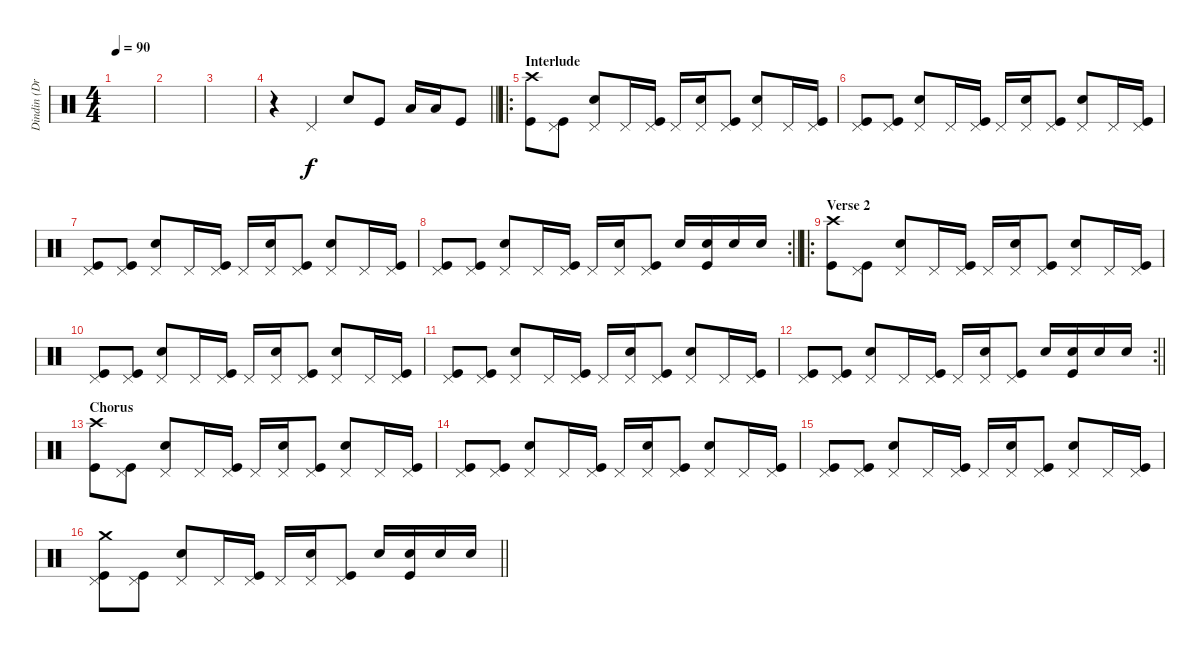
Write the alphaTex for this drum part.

\track ("Dindin (Drums)" "Dindin (Dr") {instrument percussion}
\staff {score}
\articulation defaults
\ts (4 4)
\tempo 90
\clef neutral
\ks c
|
|
|
\barLineRight lightlight
r.4 "Pedal Hi-Hat (hit)".4 "Snare (hit) 2".8 "Kick (hit)".8 "Low Tom (hit)".16 "Low Tom (hit)".16 "Kick (hit)".8 |
\ro
\section ("" "Interlude")
("Crash high (hit)" "Kick (hit)").8 ("Pedal Hi-Hat (hit)" "Kick (hit)").8 ("Pedal Hi-Hat (hit)" "Snare (hit) 2").8 "Pedal Hi-Hat (hit)".16 ("Pedal Hi-Hat (hit)" "Kick (hit)").16 "Pedal Hi-Hat (hit)".16 ("Pedal Hi-Hat (hit)" "Snare (hit) 2").16 ("Pedal Hi-Hat (hit)" "Kick (hit)").8 ("Pedal Hi-Hat (hit)" "Snare (hit) 2").8 "Pedal Hi-Hat (hit)".16 ("Pedal Hi-Hat (hit)" "Kick (hit)").16 |
("Pedal Hi-Hat (hit)" "Kick (hit)").8 ("Pedal Hi-Hat (hit)" "Kick (hit)").8 ("Pedal Hi-Hat (hit)" "Snare (hit) 2").8 "Pedal Hi-Hat (hit)".16 ("Pedal Hi-Hat (hit)" "Kick (hit)").16 "Pedal Hi-Hat (hit)".16 ("Pedal Hi-Hat (hit)" "Snare (hit) 2").16 ("Pedal Hi-Hat (hit)" "Kick (hit)").8 ("Pedal Hi-Hat (hit)" "Snare (hit) 2").8 "Pedal Hi-Hat (hit)".16 ("Pedal Hi-Hat (hit)" "Kick (hit)").16 |
("Pedal Hi-Hat (hit)" "Kick (hit)").8 ("Pedal Hi-Hat (hit)" "Kick (hit)").8 ("Pedal Hi-Hat (hit)" "Snare (hit) 2").8 "Pedal Hi-Hat (hit)".16 ("Pedal Hi-Hat (hit)" "Kick (hit)").16 "Pedal Hi-Hat (hit)".16 ("Pedal Hi-Hat (hit)" "Snare (hit) 2").16 ("Pedal Hi-Hat (hit)" "Kick (hit)").8 ("Pedal Hi-Hat (hit)" "Snare (hit) 2").8 "Pedal Hi-Hat (hit)".16 ("Pedal Hi-Hat (hit)" "Kick (hit)").16 |
\rc 2
\barLineRight lightlight
("Pedal Hi-Hat (hit)" "Kick (hit)").8 ("Pedal Hi-Hat (hit)" "Kick (hit)").8 ("Pedal Hi-Hat (hit)" "Snare (hit) 2").8 "Pedal Hi-Hat (hit)".16 ("Pedal Hi-Hat (hit)" "Kick (hit)").16 "Pedal Hi-Hat (hit)".16 ("Pedal Hi-Hat (hit)" "Snare (hit) 2").16 ("Pedal Hi-Hat (hit)" "Kick (hit)").8 "Snare (hit) 2".16 ("Snare (hit) 2" "Kick (hit)").16 "Snare (hit) 2".16 "Snare (hit) 2".16 |
\ro
\section ("" "Verse 2")
("Crash high (hit)" "Kick (hit)").8 ("Pedal Hi-Hat (hit)" "Kick (hit)").8 ("Pedal Hi-Hat (hit)" "Snare (hit) 2").8 "Pedal Hi-Hat (hit)".16 ("Pedal Hi-Hat (hit)" "Kick (hit)").16 "Pedal Hi-Hat (hit)".16 ("Pedal Hi-Hat (hit)" "Snare (hit) 2").16 ("Pedal Hi-Hat (hit)" "Kick (hit)").8 ("Pedal Hi-Hat (hit)" "Snare (hit) 2").8 "Pedal Hi-Hat (hit)".16 ("Pedal Hi-Hat (hit)" "Kick (hit)").16 |
("Pedal Hi-Hat (hit)" "Kick (hit)").8 ("Pedal Hi-Hat (hit)" "Kick (hit)").8 ("Pedal Hi-Hat (hit)" "Snare (hit) 2").8 "Pedal Hi-Hat (hit)".16 ("Pedal Hi-Hat (hit)" "Kick (hit)").16 "Pedal Hi-Hat (hit)".16 ("Pedal Hi-Hat (hit)" "Snare (hit) 2").16 ("Pedal Hi-Hat (hit)" "Kick (hit)").8 ("Pedal Hi-Hat (hit)" "Snare (hit) 2").8 "Pedal Hi-Hat (hit)".16 ("Pedal Hi-Hat (hit)" "Kick (hit)").16 |
("Pedal Hi-Hat (hit)" "Kick (hit)").8 ("Pedal Hi-Hat (hit)" "Kick (hit)").8 ("Pedal Hi-Hat (hit)" "Snare (hit) 2").8 "Pedal Hi-Hat (hit)".16 ("Pedal Hi-Hat (hit)" "Kick (hit)").16 "Pedal Hi-Hat (hit)".16 ("Pedal Hi-Hat (hit)" "Snare (hit) 2").16 ("Pedal Hi-Hat (hit)" "Kick (hit)").8 ("Pedal Hi-Hat (hit)" "Snare (hit) 2").8 "Pedal Hi-Hat (hit)".16 ("Pedal Hi-Hat (hit)" "Kick (hit)").16 |
\rc 2
\barLineRight lightlight
("Pedal Hi-Hat (hit)" "Kick (hit)").8 ("Pedal Hi-Hat (hit)" "Kick (hit)").8 ("Pedal Hi-Hat (hit)" "Snare (hit) 2").8 "Pedal Hi-Hat (hit)".16 ("Pedal Hi-Hat (hit)" "Kick (hit)").16 "Pedal Hi-Hat (hit)".16 ("Pedal Hi-Hat (hit)" "Snare (hit) 2").16 ("Pedal Hi-Hat (hit)" "Kick (hit)").8 "Snare (hit) 2".16 ("Snare (hit) 2" "Kick (hit)").16 "Snare (hit) 2".16 "Snare (hit) 2".16 |
\section ("" "Chorus")
("Crash high (hit)" "Kick (hit)").8 ("Pedal Hi-Hat (hit)" "Kick (hit)").8 ("Pedal Hi-Hat (hit)" "Snare (hit) 2").8 "Pedal Hi-Hat (hit)".16 ("Pedal Hi-Hat (hit)" "Kick (hit)").16 "Pedal Hi-Hat (hit)".16 ("Pedal Hi-Hat (hit)" "Snare (hit) 2").16 ("Pedal Hi-Hat (hit)" "Kick (hit)").8 ("Pedal Hi-Hat (hit)" "Snare (hit) 2").8 "Pedal Hi-Hat (hit)".16 ("Pedal Hi-Hat (hit)" "Kick (hit)").16 |
("Pedal Hi-Hat (hit)" "Kick (hit)").8 ("Pedal Hi-Hat (hit)" "Kick (hit)").8 ("Pedal Hi-Hat (hit)" "Snare (hit) 2").8 "Pedal Hi-Hat (hit)".16 ("Pedal Hi-Hat (hit)" "Kick (hit)").16 "Pedal Hi-Hat (hit)".16 ("Pedal Hi-Hat (hit)" "Snare (hit) 2").16 ("Pedal Hi-Hat (hit)" "Kick (hit)").8 ("Pedal Hi-Hat (hit)" "Snare (hit) 2").8 "Pedal Hi-Hat (hit)".16 ("Pedal Hi-Hat (hit)" "Kick (hit)").16 |
("Pedal Hi-Hat (hit)" "Kick (hit)").8 ("Pedal Hi-Hat (hit)" "Kick (hit)").8 ("Pedal Hi-Hat (hit)" "Snare (hit) 2").8 "Pedal Hi-Hat (hit)".16 ("Pedal Hi-Hat (hit)" "Kick (hit)").16 "Pedal Hi-Hat (hit)".16 ("Pedal Hi-Hat (hit)" "Snare (hit) 2").16 ("Pedal Hi-Hat (hit)" "Kick (hit)").8 ("Pedal Hi-Hat (hit)" "Snare (hit) 2").8 "Pedal Hi-Hat (hit)".16 ("Pedal Hi-Hat (hit)" "Kick (hit)").16 |
\barLineRight lightlight
("Crash medium (hit)" "Pedal Hi-Hat (hit)" "Kick (hit)").8 ("Pedal Hi-Hat (hit)" "Kick (hit)").8 ("Pedal Hi-Hat (hit)" "Snare (hit) 2").8 "Pedal Hi-Hat (hit)".16 ("Pedal Hi-Hat (hit)" "Kick (hit)").16 "Pedal Hi-Hat (hit)".16 ("Pedal Hi-Hat (hit)" "Snare (hit) 2").16 ("Pedal Hi-Hat (hit)" "Kick (hit)").8 "Snare (hit) 2".16 ("Snare (hit) 2" "Kick (hit)").16 "Snare (hit) 2".16 "Snare (hit) 2".16
